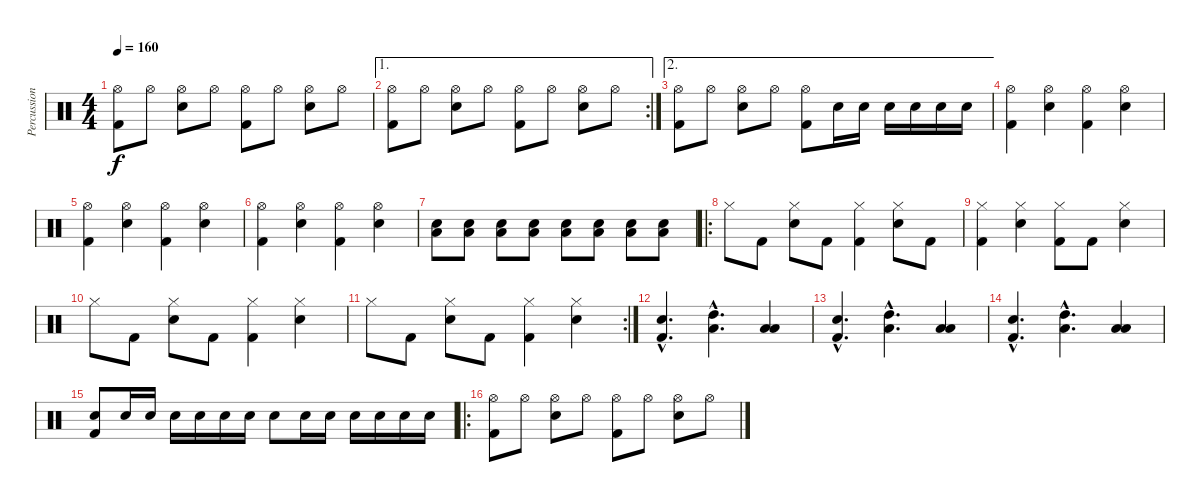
\track ("Percussions" "Percussion") {instrument percussion}
\staff {score}
\articulation defaults
\ts (4 4)
\tempo 160
\clef neutral
\ks c
("Hi-Hat (open)" "Kick (hit) 2").8{dy f} "Hi-Hat (open)".8 ("Hi-Hat (open)" "Snare (hit) 2").8 "Hi-Hat (open)".8 ("Hi-Hat (open)" "Kick (hit) 2").8 "Hi-Hat (open)".8 ("Hi-Hat (open)" "Snare (hit) 2").8 "Hi-Hat (open)".8 |
\ae 1
\rc 2
("Hi-Hat (open)" "Kick (hit) 2").8 "Hi-Hat (open)".8 ("Hi-Hat (open)" "Snare (hit) 2").8 "Hi-Hat (open)".8 ("Hi-Hat (open)" "Kick (hit) 2").8 "Hi-Hat (open)".8 ("Hi-Hat (open)" "Snare (hit) 2").8 "Hi-Hat (open)".8 |
\ae 2
("Hi-Hat (open)" "Kick (hit) 2").8 "Hi-Hat (open)".8 ("Hi-Hat (open)" "Snare (hit) 2").8 "Hi-Hat (open)".8 ("Hi-Hat (open)" "Kick (hit) 2").8 "Snare (hit) 2".16 "Snare (hit) 2".16 "Snare (hit) 2".16 "Snare (hit) 2".16 "Snare (hit) 2".16 "Snare (hit) 2".16 |
("Hi-Hat (open)" "Kick (hit) 2").4 ("Hi-Hat (open)" "Snare (hit) 2").4 ("Hi-Hat (open)" "Kick (hit) 2").4 ("Hi-Hat (open)" "Snare (hit) 2").4 |
("Hi-Hat (open)" "Kick (hit) 2").4 ("Hi-Hat (open)" "Snare (hit) 2").4 ("Hi-Hat (open)" "Kick (hit) 2").4 ("Hi-Hat (open)" "Snare (hit) 2").4 |
("Hi-Hat (open)" "Kick (hit) 2").4 ("Hi-Hat (open)" "Snare (hit) 2").4 ("Hi-Hat (open)" "Kick (hit) 2").4 ("Hi-Hat (open)" "Snare (hit) 2").4 |
("Snare (hit) 2" "Low Tom (hit)").8 ("Snare (hit) 2" "Low Tom (hit)").8 ("Snare (hit) 2" "Low Tom (hit)").8 ("Snare (hit) 2" "Low Tom (hit)").8 ("Snare (hit) 2" "Low Floor Tom (hit)").8 ("Snare (hit) 2" "Low Floor Tom (hit)").8 ("Snare (hit) 2" "Low Floor Tom (hit)").8 ("Snare (hit) 2" "Low Floor Tom (hit)").8 |
\ro "Hi-Hat (closed)".8 "Kick (hit) 2".8
("Hi-Hat (closed)" "Snare (hit) 2").8 "Kick (hit) 2".8 ("Hi-Hat (closed)" "Kick (hit) 2").4 ("Hi-Hat (closed)" "Snare (hit) 2").8 "Kick (hit) 2".8 |
("Hi-Hat (closed)" "Kick (hit) 2").4 ("Hi-Hat (closed)" "Snare (hit) 2").4 ("Hi-Hat (closed)" "Kick (hit) 2").8 "Kick (hit) 2".8 ("Hi-Hat (closed)" "Snare (hit) 2").4 |
"Hi-Hat (closed)".8 "Kick (hit) 2".8 ("Hi-Hat (closed)" "Snare (hit) 2").8 "Kick (hit) 2".8 ("Hi-Hat (closed)" "Kick (hit) 2").4 ("Hi-Hat (closed)" "Snare (hit) 2").4 |
\rc 2 "Hi-Hat (closed)".8 "Kick (hit) 2".8
("Hi-Hat (closed)" "Snare (hit) 2").8 "Kick (hit) 2".8 ("Hi-Hat (closed)" "Kick (hit) 2").4 ("Hi-Hat (closed)" "Snare (hit) 2").4 |
("Snare (hit) 2"{hac} "Kick (hit) 2"{hac}).4{d} ("Low Floor Tom (hit)"{hac} "High Tom (hit)"{hac}).4{d} ("Low Floor Tom (hit)" "Low Tom (hit)").4 |
("Snare (hit) 2"{hac} "Kick (hit) 2"{hac}).4{d} ("Low Floor Tom (hit)"{hac} "High Tom (hit)"{hac}).4{d} ("Low Floor Tom (hit)" "Low Tom (hit)").4 |
("Snare (hit) 2"{hac} "Kick (hit) 2"{hac}).4{d} ("Low Floor Tom (hit)"{hac} "High Tom (hit)"{hac}).4{d} ("Low Floor Tom (hit)" "Low Tom (hit)").4 |
("Snare (hit) 2" "Kick (hit) 2").8 "Snare (hit) 2".16 "Snare (hit) 2".16 "Snare (hit) 2".16 "Snare (hit) 2".16 "Snare (hit) 2".16 "Snare (hit) 2".16 "Snare (hit) 2".8 "Snare (hit) 2".16 "Snare (hit) 2".16 "Snare (hit) 2".16 "Snare (hit) 2".16 "Snare (hit) 2".16 "Snare (hit) 2".16 |
\ro
("Hi-Hat (open)" "Kick (hit) 2").8 "Hi-Hat (open)".8 ("Hi-Hat (open)" "Snare (hit) 2").8 "Hi-Hat (open)".8 ("Hi-Hat (open)" "Kick (hit) 2").8 "Hi-Hat (open)".8 ("Hi-Hat (open)" "Snare (hit) 2").8 "Hi-Hat (open)".8
